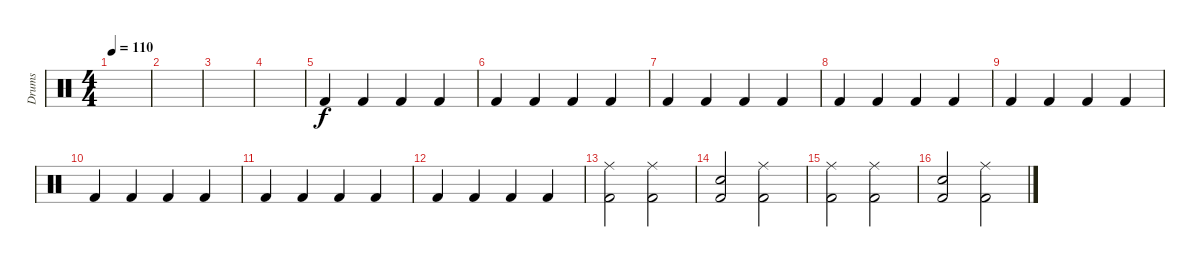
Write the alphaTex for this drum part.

\track ("Drums" "Drums") {instrument percussion}
\staff {score}
\articulation defaults
\ts (4 4)
\tempo 110
\clef neutral
\ks c
|
|
|
|
"Kick (hit) 2".4 "Kick (hit) 2".4 "Kick (hit) 2".4 "Kick (hit) 2".4 |
"Kick (hit) 2".4 "Kick (hit) 2".4 "Kick (hit) 2".4 "Kick (hit) 2".4 |
"Kick (hit) 2".4 "Kick (hit) 2".4 "Kick (hit) 2".4 "Kick (hit) 2".4 |
"Kick (hit) 2".4 "Kick (hit) 2".4 "Kick (hit) 2".4 "Kick (hit) 2".4 |
"Kick (hit) 2".4 "Kick (hit) 2".4 "Kick (hit) 2".4 "Kick (hit) 2".4 |
"Kick (hit) 2".4 "Kick (hit) 2".4 "Kick (hit) 2".4 "Kick (hit) 2".4 |
"Kick (hit) 2".4 "Kick (hit) 2".4 "Kick (hit) 2".4 "Kick (hit) 2".4 |
"Kick (hit) 2".4 "Kick (hit) 2".4 "Kick (hit) 2".4 "Kick (hit) 2".4 |
("Kick (hit) 2" "Ride (middle)").2 ("Kick (hit) 2" "Ride (middle)").2 |
("Kick (hit) 2" "Snare (hit) 2").2 ("Kick (hit) 2" "Ride (middle)").2 |
("Kick (hit) 2" "Ride (middle)").2 ("Kick (hit) 2" "Ride (middle)").2 |
("Kick (hit) 2" "Snare (hit) 2").2 ("Kick (hit) 2" "Ride (middle)").2
